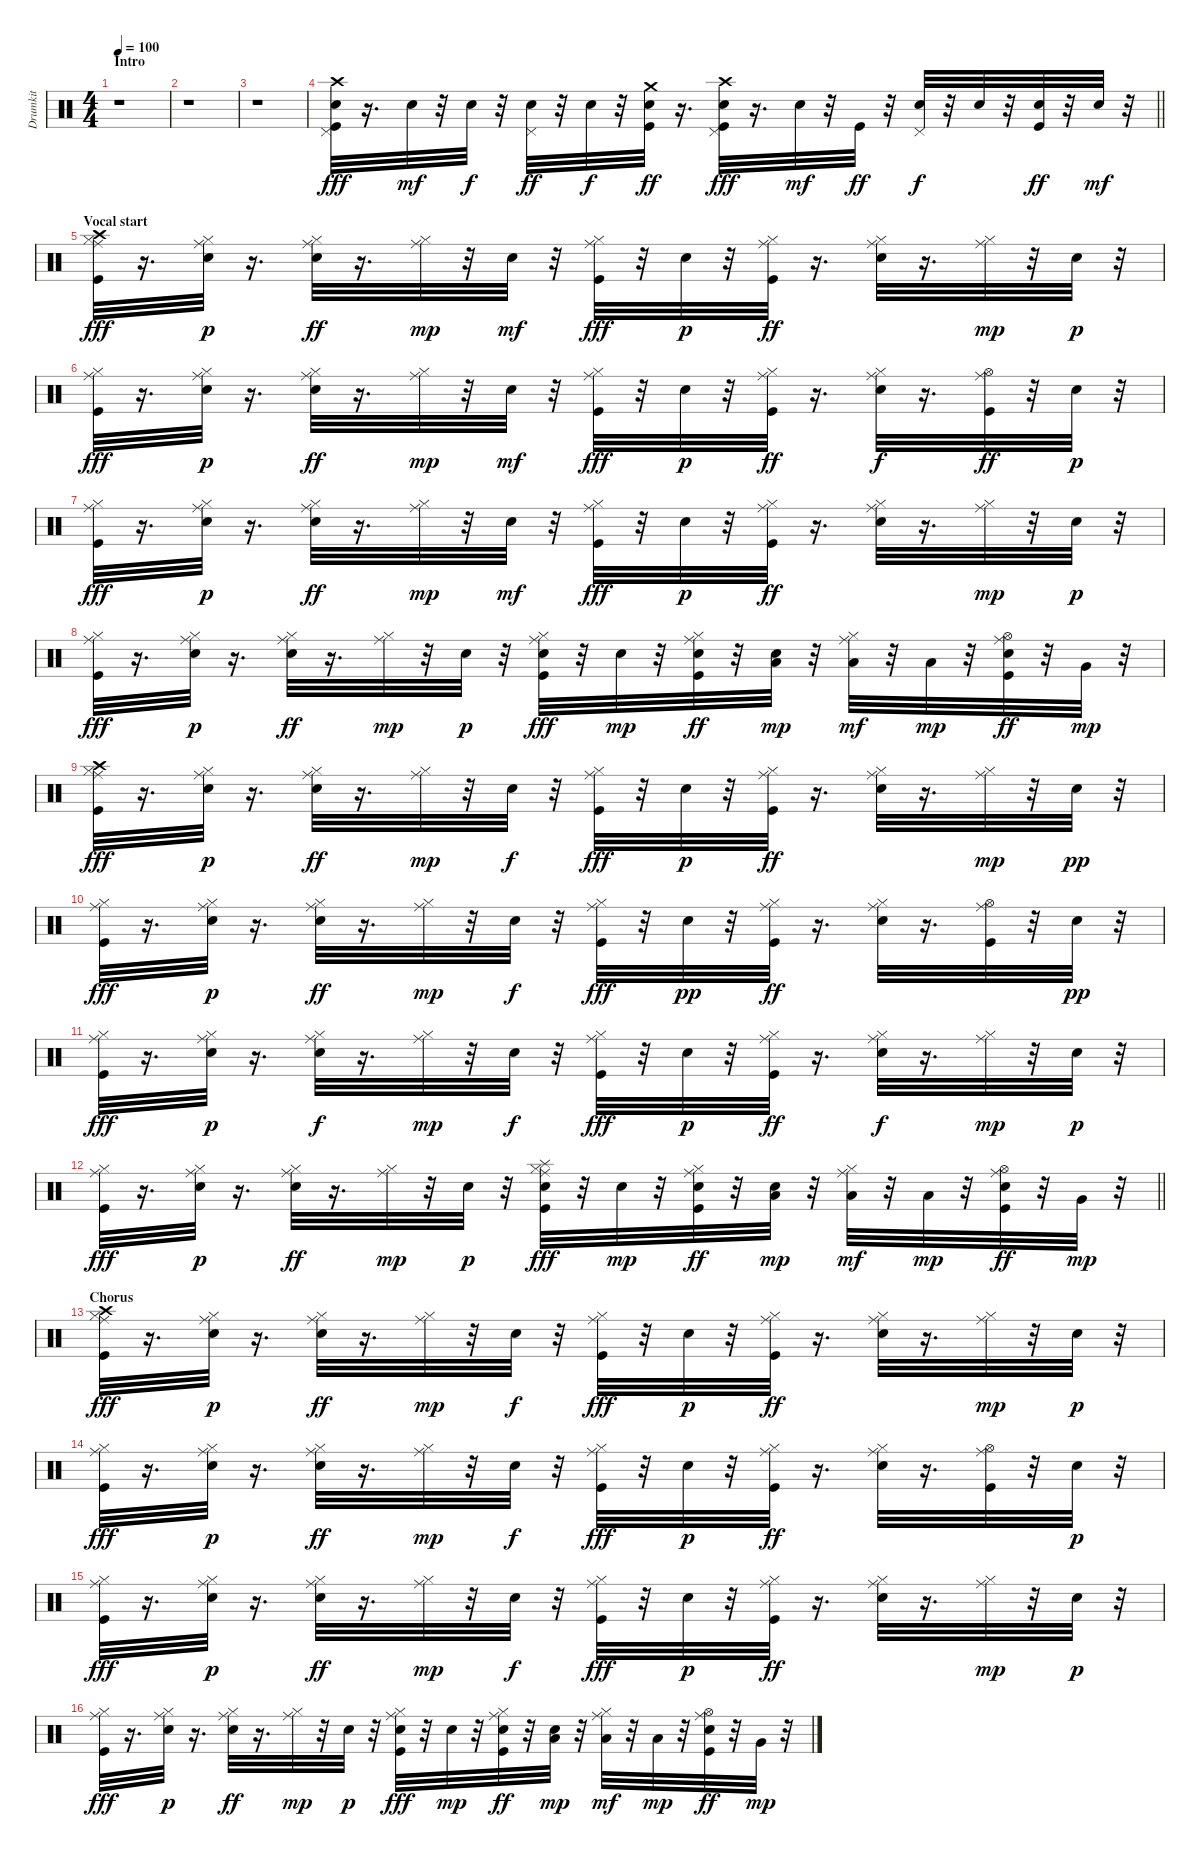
\track ("Drumkit" "Drumkit") {instrument percussion}
\staff {score}
\articulation defaults
\ts (4 4)
\section ("" "Intro")
\tempo 100
\clef neutral
\ks c
r.1{dy fff} |
r.1 |
r.1 |
\barLineRight lightlight
("Kick (hit)" "Snare (hit) 2" "Pedal Hi-Hat (hit)" "Crash high (hit)").32 r.16{d} "Snare (hit) 2".32{dy mf} r.32 "Snare (hit) 2".32{dy f} r.32 ("Snare (hit) 2" "Pedal Hi-Hat (hit)").32{dy ff} r.32 "Snare (hit) 2".32{dy f} r.32 ("Kick (hit)" "Snare (hit) 2" "Crash medium (hit)").32{dy ff} r.16{d} ("Kick (hit)" "Snare (hit) 2" "Pedal Hi-Hat (hit)" "Crash high (hit)").32{dy fff} r.16{d} "Snare (hit) 2".32{dy mf} r.32 "Kick (hit)".32{dy ff} r.32 ("Snare (hit) 2" "Pedal Hi-Hat (hit)").32{dy f} r.32 "Snare (hit) 2".32 r.32 ("Kick (hit)" "Snare (hit) 2").32{dy ff} r.32 "Snare (hit) 2".32{dy mf} r.32 |
\section ("" "Vocal start")
("Kick (hit)" "Hi-Hat (closed)" "Crash high (hit)" "Ride (middle)").32{dy fff} r.16{d} ("Snare (hit) 2" "Hi-Hat (closed)" "Ride (middle)").32{dy p} r.16{d} ("Snare (hit) 2" "Hi-Hat (closed)" "Ride (middle)").32{dy ff} r.16{d} ("Hi-Hat (closed)" "Ride (middle)").32{dy mp} r.32 "Snare (hit) 2".32{dy mf} r.32 ("Kick (hit)" "Hi-Hat (closed)" "Ride (middle)").32{dy fff} r.32 "Snare (hit) 2".32{dy p} r.32 ("Kick (hit)" "Hi-Hat (closed)" "Ride (middle)").32{dy ff} r.16{d} ("Snare (hit) 2" "Hi-Hat (closed)" "Ride (middle)").32 r.16{d} ("Hi-Hat (closed)" "Ride (middle)").32{dy mp} r.32 "Snare (hit) 2".32{dy p} r.32 |
("Kick (hit)" "Hi-Hat (closed)" "Ride (middle)").32{dy fff} r.16{d} ("Snare (hit) 2" "Hi-Hat (closed)" "Ride (middle)").32{dy p} r.16{d} ("Snare (hit) 2" "Hi-Hat (closed)" "Ride (middle)").32{dy ff} r.16{d} ("Hi-Hat (closed)" "Ride (middle)").32{dy mp} r.32 "Snare (hit) 2".32{dy mf} r.32 ("Kick (hit)" "Hi-Hat (closed)" "Ride (middle)").32{dy fff} r.32 "Snare (hit) 2".32{dy p} r.32 ("Kick (hit)" "Hi-Hat (closed)" "Ride (middle)").32{dy ff} r.16{d} ("Snare (hit) 2" "Hi-Hat (closed)" "Ride (middle)").32{dy f} r.16{d} ("Kick (hit)" "Hi-Hat (open)" "Ride (middle)").32{dy ff} r.32 "Snare (hit) 2".32{dy p} r.32 |
("Kick (hit)" "Hi-Hat (closed)" "Ride (middle)").32{dy fff} r.16{d} ("Snare (hit) 2" "Hi-Hat (closed)" "Ride (middle)").32{dy p} r.16{d} ("Snare (hit) 2" "Hi-Hat (closed)" "Ride (middle)").32{dy ff} r.16{d} ("Hi-Hat (closed)" "Ride (middle)").32{dy mp} r.32 "Snare (hit) 2".32{dy mf} r.32 ("Kick (hit)" "Hi-Hat (closed)" "Ride (middle)").32{dy fff} r.32 "Snare (hit) 2".32{dy p} r.32 ("Kick (hit)" "Hi-Hat (closed)" "Ride (middle)").32{dy ff} r.16{d} ("Snare (hit) 2" "Hi-Hat (closed)" "Ride (middle)").32 r.16{d} ("Hi-Hat (closed)" "Ride (middle)").32{dy mp} r.32 "Snare (hit) 2".32{dy p} r.32 |
("Kick (hit)" "Hi-Hat (closed)" "Ride (middle)").32{dy fff} r.16{d} ("Snare (hit) 2" "Hi-Hat (closed)" "Ride (middle)").32{dy p} r.16{d} ("Snare (hit) 2" "Hi-Hat (closed)" "Ride (middle)").32{dy ff} r.16{d} ("Hi-Hat (closed)" "Ride (middle)").32{dy mp} r.32 "Snare (hit) 2".32{dy p} r.32 ("Kick (hit)" "Snare (hit) 2" "Hi-Hat (closed)" "Ride (middle)").32{dy fff} r.32 "Snare (hit) 2".32{dy mp} r.32 ("Kick (hit)" "Snare (hit) 2" "Hi-Hat (closed)" "Ride (middle)").32{dy ff} r.32 ("Snare (hit) 2" "Low Tom (hit)").32{dy mp} r.32 ("Hi-Hat (closed)" "Low Tom (hit)" "Ride (middle)").32{dy mf} r.32 "Low Tom (hit)".32{dy mp} r.32 ("Kick (hit)" "Snare (hit) 2" "Hi-Hat (open)" "Ride (middle)").32{dy ff} r.32 "Very Low Tom (hit)".32{dy mp} r.32 |
("Kick (hit)" "Hi-Hat (closed)" "Crash high (hit)" "Ride (middle)").32{dy fff} r.16{d} ("Snare (hit) 2" "Hi-Hat (closed)" "Ride (middle)").32{dy p} r.16{d} ("Snare (hit) 2" "Hi-Hat (closed)" "Ride (middle)").32{dy ff} r.16{d} ("Hi-Hat (closed)" "Ride (middle)").32{dy mp} r.32 "Snare (hit) 2".32{dy f} r.32 ("Kick (hit)" "Hi-Hat (closed)" "Ride (middle)").32{dy fff} r.32 "Snare (hit) 2".32{dy p} r.32 ("Kick (hit)" "Hi-Hat (closed)" "Ride (middle)").32{dy ff} r.16{d} ("Snare (hit) 2" "Hi-Hat (closed)" "Ride (middle)").32 r.16{d} ("Hi-Hat (closed)" "Ride (middle)").32{dy mp} r.32 "Snare (hit) 2".32{dy pp} r.32 |
("Kick (hit)" "Hi-Hat (closed)" "Ride (middle)").32{dy fff} r.16{d} ("Snare (hit) 2" "Hi-Hat (closed)" "Ride (middle)").32{dy p} r.16{d} ("Snare (hit) 2" "Hi-Hat (closed)" "Ride (middle)").32{dy ff} r.16{d} ("Hi-Hat (closed)" "Ride (middle)").32{dy mp} r.32 "Snare (hit) 2".32{dy f} r.32 ("Kick (hit)" "Hi-Hat (closed)" "Ride (middle)").32{dy fff} r.32 "Snare (hit) 2".32{dy pp} r.32 ("Kick (hit)" "Hi-Hat (closed)" "Ride (middle)").32{dy ff} r.16{d} ("Snare (hit) 2" "Hi-Hat (closed)" "Ride (middle)").32 r.16{d} ("Kick (hit)" "Hi-Hat (open)" "Ride (middle)").32 r.32 "Snare (hit) 2".32{dy pp} r.32 |
("Kick (hit)" "Hi-Hat (closed)" "Ride (middle)").32{dy fff} r.16{d} ("Snare (hit) 2" "Hi-Hat (closed)" "Ride (middle)").32{dy p} r.16{d} ("Snare (hit) 2" "Hi-Hat (closed)" "Ride (middle)").32{dy f} r.16{d} ("Hi-Hat (closed)" "Ride (middle)").32{dy mp} r.32 "Snare (hit) 2".32{dy f} r.32 ("Kick (hit)" "Hi-Hat (closed)" "Ride (middle)").32{dy fff} r.32 "Snare (hit) 2".32{dy p} r.32 ("Kick (hit)" "Hi-Hat (closed)" "Ride (middle)").32{dy ff} r.16{d} ("Snare (hit) 2" "Hi-Hat (closed)" "Ride (middle)").32{dy f} r.16{d} ("Hi-Hat (closed)" "Ride (middle)").32{dy mp} r.32 "Snare (hit) 2".32{dy p} r.32 |
\barLineRight lightlight
("Kick (hit)" "Hi-Hat (closed)" "Ride (middle)").32{dy fff} r.16{d} ("Snare (hit) 2" "Hi-Hat (closed)" "Ride (middle)").32{dy p} r.16{d} ("Snare (hit) 2" "Hi-Hat (closed)" "Ride (middle)").32{dy ff} r.16{d} ("Hi-Hat (closed)" "Ride (middle)").32{dy mp} r.32 "Snare (hit) 2".32{dy p} r.32 ("Kick (hit)" "Snare (hit) 2" "Hi-Hat (closed)" "Ride (middle)" "Splash (hit)").32{dy fff} r.32 "Snare (hit) 2".32{dy mp} r.32 ("Kick (hit)" "Snare (hit) 2" "Hi-Hat (closed)" "Ride (middle)").32{dy ff} r.32 ("Snare (hit) 2" "Low Tom (hit)").32{dy mp} r.32 ("Hi-Hat (closed)" "Low Tom (hit)" "Ride (middle)").32{dy mf} r.32 "Low Tom (hit)".32{dy mp} r.32 ("Kick (hit)" "Snare (hit) 2" "Hi-Hat (open)" "Ride (middle)").32{dy ff} r.32 "Very Low Tom (hit)".32{dy mp} r.32 |
\section ("" "Chorus")
("Kick (hit)" "Hi-Hat (closed)" "Crash high (hit)" "Ride (middle)").32{dy fff} r.16{d} ("Snare (hit) 2" "Hi-Hat (closed)" "Ride (middle)").32{dy p} r.16{d} ("Snare (hit) 2" "Hi-Hat (closed)" "Ride (middle)").32{dy ff} r.16{d} ("Hi-Hat (closed)" "Ride (middle)").32{dy mp} r.32 "Snare (hit) 2".32{dy f} r.32 ("Kick (hit)" "Hi-Hat (closed)" "Ride (middle)").32{dy fff} r.32 "Snare (hit) 2".32{dy p} r.32 ("Kick (hit)" "Hi-Hat (closed)" "Ride (middle)").32{dy ff} r.16{d} ("Snare (hit) 2" "Hi-Hat (closed)" "Ride (middle)").32 r.16{d} ("Hi-Hat (closed)" "Ride (middle)").32{dy mp} r.32 "Snare (hit) 2".32{dy p} r.32 |
("Kick (hit)" "Hi-Hat (closed)" "Ride (middle)").32{dy fff} r.16{d} ("Snare (hit) 2" "Hi-Hat (closed)" "Ride (middle)").32{dy p} r.16{d} ("Snare (hit) 2" "Hi-Hat (closed)" "Ride (middle)").32{dy ff} r.16{d} ("Hi-Hat (closed)" "Ride (middle)").32{dy mp} r.32 "Snare (hit) 2".32{dy f} r.32 ("Kick (hit)" "Hi-Hat (closed)" "Ride (middle)").32{dy fff} r.32 "Snare (hit) 2".32{dy p} r.32 ("Kick (hit)" "Hi-Hat (closed)" "Ride (middle)").32{dy ff} r.16{d} ("Snare (hit) 2" "Hi-Hat (closed)" "Ride (middle)").32 r.16{d} ("Kick (hit)" "Hi-Hat (open)" "Ride (middle)").32 r.32 "Snare (hit) 2".32{dy p} r.32 |
("Kick (hit)" "Hi-Hat (closed)" "Ride (middle)").32{dy fff} r.16{d} ("Snare (hit) 2" "Hi-Hat (closed)" "Ride (middle)").32{dy p} r.16{d} ("Snare (hit) 2" "Hi-Hat (closed)" "Ride (middle)").32{dy ff} r.16{d} ("Hi-Hat (closed)" "Ride (middle)").32{dy mp} r.32 "Snare (hit) 2".32{dy f} r.32 ("Kick (hit)" "Hi-Hat (closed)" "Ride (middle)").32{dy fff} r.32 "Snare (hit) 2".32{dy p} r.32 ("Kick (hit)" "Hi-Hat (closed)" "Ride (middle)").32{dy ff} r.16{d} ("Snare (hit) 2" "Hi-Hat (closed)" "Ride (middle)").32 r.16{d} ("Hi-Hat (closed)" "Ride (middle)").32{dy mp} r.32 "Snare (hit) 2".32{dy p} r.32 |
("Kick (hit)" "Hi-Hat (closed)" "Ride (middle)").32{dy fff} r.16{d} ("Snare (hit) 2" "Hi-Hat (closed)" "Ride (middle)").32{dy p} r.16{d} ("Snare (hit) 2" "Hi-Hat (closed)" "Ride (middle)").32{dy ff} r.16{d} ("Hi-Hat (closed)" "Ride (middle)").32{dy mp} r.32 "Snare (hit) 2".32{dy p} r.32 ("Kick (hit)" "Snare (hit) 2" "Hi-Hat (closed)" "Ride (middle)").32{dy fff} r.32 "Snare (hit) 2".32{dy mp} r.32 ("Kick (hit)" "Snare (hit) 2" "Hi-Hat (closed)" "Ride (middle)").32{dy ff} r.32 ("Snare (hit) 2" "Low Tom (hit)").32{dy mp} r.32 ("Hi-Hat (closed)" "Low Tom (hit)" "Ride (middle)").32{dy mf} r.32 "Low Tom (hit)".32{dy mp} r.32 ("Kick (hit)" "Snare (hit) 2" "Hi-Hat (open)" "Ride (middle)").32{dy ff} r.32 "Very Low Tom (hit)".32{dy mp} r.32
